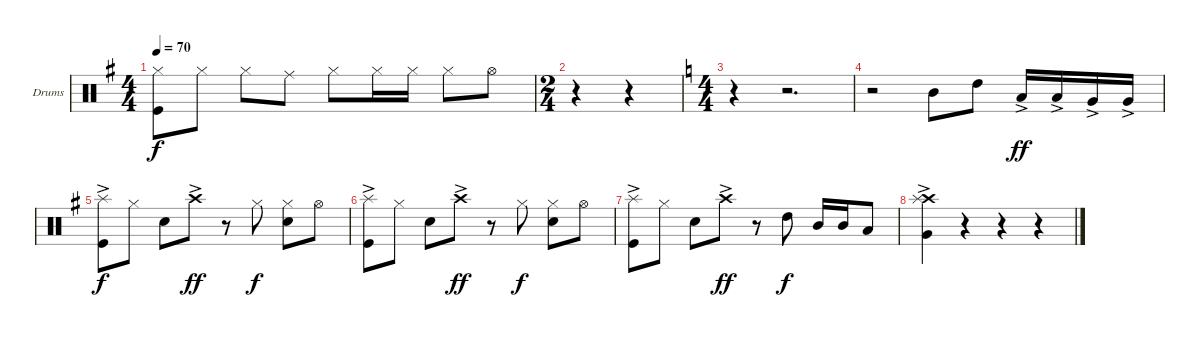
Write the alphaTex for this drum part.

\bracketExtendMode groupsimilarinstruments
\firstSystemTrackNameOrientation horizontal
\otherSystemsTrackNameOrientation horizontal
\track ("Drumkit" "Drums") {instrument percussion}
\staff {score}
\articulation defaults
\ts (4 4)
\tempo 70
\clef neutral
\ks g
("Hi-Hat (closed)" "Kick (hit)").8{dy f} "Hi-Hat (closed)".8 "Hi-Hat (closed)".8 "Ride (middle)".8 "Hi-Hat (closed)".8 "Hi-Hat (closed)".16 "Hi-Hat (closed)".16 "Hi-Hat (closed)".8 "Hi-Hat (open)".8 |
\ts (2 4)
\beaming (8 2 2)
r.4 r.4 |
\ts (4 4)
\beaming (8 2 2 2 2)
\ks c
r.4 r.2{d} |
r.2 "Mid Tom (hit)".8 "High Tom (hit)".8 "Low Tom (hit)"{ac}.16{dy ff} "Low Tom (hit)"{ac}.16 "Very Low Tom (hit)"{ac}.16 "Very Low Tom (hit)"{ac}.16 |
\ks g
("Splash (hit)"{ac} "Kick (hit)").8{dy f} "Hi-Hat (closed)".8 "Snare (hit) 2".8 "Crash high (hit)"{ac}.8{dy ff} r.8 "Hi-Hat (closed)".8{dy f} ("Hi-Hat (closed)" "Snare (hit) 2").8 "Hi-Hat (open)".8 |
("Splash (hit)"{ac} "Kick (hit)").8 "Hi-Hat (closed)".8 "Snare (hit) 2".8 "Crash high (hit)"{ac}.8{dy ff} r.8 "Hi-Hat (closed)".8{dy f} ("Hi-Hat (closed)" "Snare (hit) 2").8 "Hi-Hat (open)".8 |
("Splash (hit)"{ac} "Kick (hit)").8 "Hi-Hat (closed)".8 "Snare (hit) 2".8 "Crash high (hit)"{ac}.8{dy ff} r.8 "High Tom (hit)".8{dy f} "Mid Tom (hit)".16 "Mid Tom (hit)".16 "Low Tom (hit)".8 |
("Crash high (hit)"{ac} "Splash (hit)" "Very Low Tom (hit)").4 r.4 r.4 r.4
